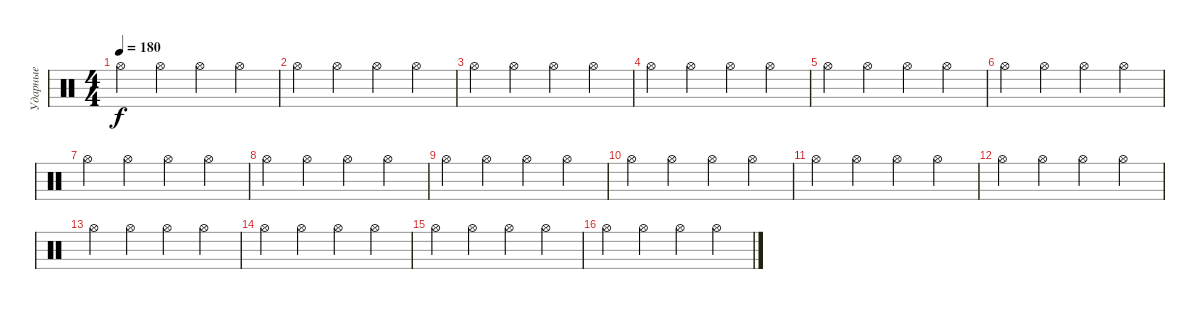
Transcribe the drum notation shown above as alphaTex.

\track ("Ударные" "Ударные") {instrument percussion}
\staff {score}
\articulation defaults
\ts (4 4)
\tempo 180
\clef neutral
\ks c "Hi-Hat (open)".4{dy f} "Hi-Hat (open)".4 "Hi-Hat (open)".4 "Hi-Hat (open)".4
|
"Hi-Hat (open)".4 "Hi-Hat (open)".4 "Hi-Hat (open)".4 "Hi-Hat (open)".4 |
"Hi-Hat (open)".4 "Hi-Hat (open)".4 "Hi-Hat (open)".4 "Hi-Hat (open)".4 |
"Hi-Hat (open)".4 "Hi-Hat (open)".4 "Hi-Hat (open)".4 "Hi-Hat (open)".4 |
"Hi-Hat (open)".4 "Hi-Hat (open)".4 "Hi-Hat (open)".4 "Hi-Hat (open)".4 |
"Hi-Hat (open)".4 "Hi-Hat (open)".4 "Hi-Hat (open)".4 "Hi-Hat (open)".4 |
"Hi-Hat (open)".4 "Hi-Hat (open)".4 "Hi-Hat (open)".4 "Hi-Hat (open)".4 |
"Hi-Hat (open)".4 "Hi-Hat (open)".4 "Hi-Hat (open)".4 "Hi-Hat (open)".4 |
"Hi-Hat (open)".4 "Hi-Hat (open)".4 "Hi-Hat (open)".4 "Hi-Hat (open)".4 |
"Hi-Hat (open)".4 "Hi-Hat (open)".4 "Hi-Hat (open)".4 "Hi-Hat (open)".4 |
"Hi-Hat (open)".4 "Hi-Hat (open)".4 "Hi-Hat (open)".4 "Hi-Hat (open)".4 |
"Hi-Hat (open)".4 "Hi-Hat (open)".4 "Hi-Hat (open)".4 "Hi-Hat (open)".4 |
"Hi-Hat (open)".4 "Hi-Hat (open)".4 "Hi-Hat (open)".4 "Hi-Hat (open)".4 |
"Hi-Hat (open)".4 "Hi-Hat (open)".4 "Hi-Hat (open)".4 "Hi-Hat (open)".4 |
"Hi-Hat (open)".4 "Hi-Hat (open)".4 "Hi-Hat (open)".4 "Hi-Hat (open)".4 |
"Hi-Hat (open)".4 "Hi-Hat (open)".4 "Hi-Hat (open)".4 "Hi-Hat (open)".4
